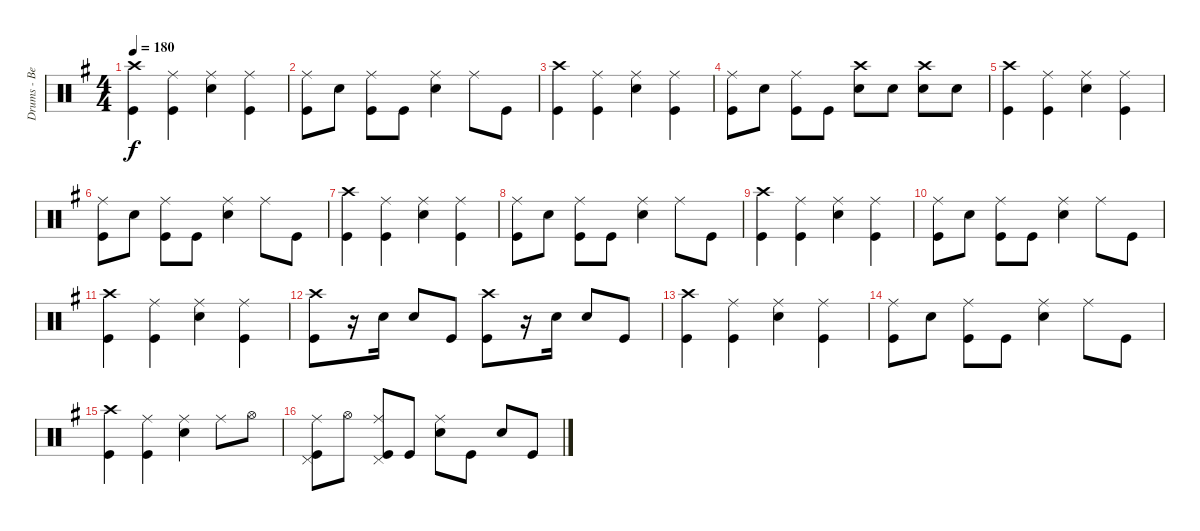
\track ("Drums - Ben Johnston" "Drums - Be") {instrument percussion}
\staff {score}
\articulation defaults
\ts (4 4)
\tempo 180
\clef neutral
\ks eminor
("Crash high (hit)" "Kick (hit)").4{dy f} ("Ride (middle)" "Kick (hit)").4 ("Ride (middle)" "Snare (hit) 2").4 ("Ride (middle)" "Kick (hit)").4 |
("Ride (middle)" "Kick (hit)").8 "Snare (hit) 2".8 ("Ride (middle)" "Kick (hit)").8 "Kick (hit)".8 ("Ride (middle)" "Snare (hit) 2").4 "Ride (middle)".8 "Kick (hit)".8 |
("Crash high (hit)" "Kick (hit)").4 ("Ride (middle)" "Kick (hit)").4 ("Ride (middle)" "Snare (hit) 2").4 ("Ride (middle)" "Kick (hit)").4 |
("Ride (middle)" "Kick (hit)").8 "Snare (hit) 2".8 ("Ride (middle)" "Kick (hit)").8 "Kick (hit)".8 ("Crash high (hit)" "Snare (hit) 2").8 "Snare (hit) 2".8 ("Crash high (hit)" "Snare (hit) 2").8 "Snare (hit) 2".8 |
("Crash high (hit)" "Kick (hit)").4 ("Ride (middle)" "Kick (hit)").4 ("Ride (middle)" "Snare (hit) 2").4 ("Ride (middle)" "Kick (hit)").4 |
("Ride (middle)" "Kick (hit)").8 "Snare (hit) 2".8 ("Ride (middle)" "Kick (hit)").8 "Kick (hit)".8 ("Ride (middle)" "Snare (hit) 2").4 "Ride (middle)".8 "Kick (hit)".8 |
("Crash high (hit)" "Kick (hit)").4 ("Ride (middle)" "Kick (hit)").4 ("Ride (middle)" "Snare (hit) 2").4 ("Ride (middle)" "Kick (hit)").4 |
("Ride (middle)" "Kick (hit)").8 "Snare (hit) 2".8 ("Ride (middle)" "Kick (hit)").8 "Kick (hit)".8 ("Ride (middle)" "Snare (hit) 2").4 "Ride (middle)".8 "Kick (hit)".8 |
("Crash high (hit)" "Kick (hit)").4 ("Ride (middle)" "Kick (hit)").4 ("Ride (middle)" "Snare (hit) 2").4 ("Ride (middle)" "Kick (hit)").4 |
("Ride (middle)" "Kick (hit)").8 "Snare (hit) 2".8 ("Ride (middle)" "Kick (hit)").8 "Kick (hit)".8 ("Ride (middle)" "Snare (hit) 2").4 "Ride (middle)".8 "Kick (hit)".8 |
("Crash high (hit)" "Kick (hit)").4 ("Ride (middle)" "Kick (hit)").4 ("Ride (middle)" "Snare (hit) 2").4 ("Ride (middle)" "Kick (hit)").4 |
("Crash high (hit)" "Kick (hit)").8 r.16 "Snare (hit) 2".16 "Snare (hit) 2".8 "Kick (hit)".8 ("Crash high (hit)" "Kick (hit)").8 r.16 "Snare (hit) 2".16 "Snare (hit) 2".8 "Kick (hit)".8 |
("Crash high (hit)" "Kick (hit)").4 ("Ride (middle)" "Kick (hit)").4 ("Ride (middle)" "Snare (hit) 2").4 ("Ride (middle)" "Kick (hit)").4 |
("Ride (middle)" "Kick (hit)").8 "Snare (hit) 2".8 ("Ride (middle)" "Kick (hit)").8 "Kick (hit)".8 ("Ride (middle)" "Snare (hit) 2").4 "Ride (middle)".8 "Kick (hit)".8 |
("Crash high (hit)" "Kick (hit)").4 ("Ride (middle)" "Kick (hit)").4 ("Ride (middle)" "Snare (hit) 2").4 "Ride (middle)".8 "Hi-Hat (open)".8 |
("Ride (middle)" "Pedal Hi-Hat (hit)" "Kick (hit)").8 "Hi-Hat (open)".8 ("Ride (middle)" "Pedal Hi-Hat (hit)" "Kick (hit)").8 "Kick (hit)".8 ("Ride (middle)" "Snare (hit) 2").8 "Kick (hit)".8 "Snare (hit) 2".8 "Kick (hit)".8
